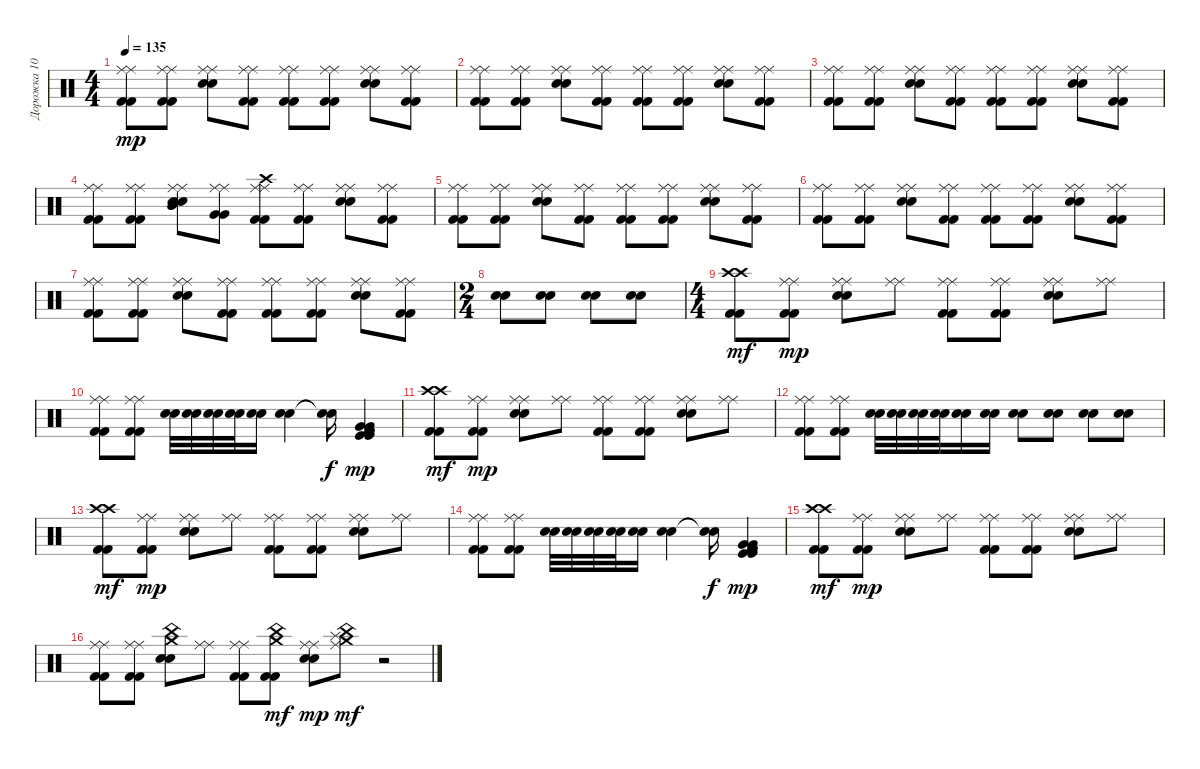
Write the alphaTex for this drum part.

\track ("Дорожка 10" "Дорожка 10") {instrument percussion}
\staff {score}
\articulation defaults
\ts (4 4)
\tempo 135
\clef neutral
\ks c
("Kick (hit) 2" "Ride (middle)" "Kick (hit) 2" "Ride (middle)").8{dy mp} ("Kick (hit) 2" "Ride (middle)" "Kick (hit) 2" "Ride (middle)").8 ("Snare (hit) 2" "Ride (middle)" "Snare (hit) 2" "Ride (middle)").8 ("Kick (hit) 2" "Ride (middle)" "Kick (hit) 2" "Ride (middle)").8 ("Kick (hit) 2" "Ride (middle)" "Kick (hit) 2" "Ride (middle)").8 ("Kick (hit) 2" "Ride (middle)" "Kick (hit) 2" "Ride (middle)").8 ("Snare (hit) 2" "Ride (middle)" "Snare (hit) 2" "Ride (middle)").8 ("Kick (hit) 2" "Ride (middle)" "Kick (hit) 2" "Ride (middle)").8 |
("Kick (hit) 2" "Ride (middle)" "Kick (hit) 2" "Ride (middle)").8 ("Kick (hit) 2" "Ride (middle)" "Kick (hit) 2" "Ride (middle)").8 ("Snare (hit) 2" "Ride (middle)" "Snare (hit) 2" "Ride (middle)").8 ("Kick (hit) 2" "Ride (middle)" "Kick (hit) 2" "Ride (middle)").8 ("Kick (hit) 2" "Ride (middle)" "Kick (hit) 2" "Ride (middle)").8 ("Kick (hit) 2" "Ride (middle)" "Kick (hit) 2" "Ride (middle)").8 ("Snare (hit) 2" "Ride (middle)" "Snare (hit) 2" "Ride (middle)").8 ("Kick (hit) 2" "Ride (middle)" "Kick (hit) 2" "Ride (middle)").8 |
("Kick (hit) 2" "Ride (middle)" "Kick (hit) 2" "Ride (middle)").8 ("Kick (hit) 2" "Ride (middle)" "Kick (hit) 2" "Ride (middle)").8 ("Snare (hit) 2" "Ride (middle)" "Snare (hit) 2" "Ride (middle)").8 ("Kick (hit) 2" "Ride (middle)" "Kick (hit) 2" "Ride (middle)").8 ("Kick (hit) 2" "Ride (middle)" "Kick (hit) 2" "Ride (middle)").8 ("Kick (hit) 2" "Ride (middle)" "Kick (hit) 2" "Ride (middle)").8 ("Snare (hit) 2" "Ride (middle)" "Snare (hit) 2" "Ride (middle)").8 ("Kick (hit) 2" "Ride (middle)" "Kick (hit) 2" "Ride (middle)").8 |
("Kick (hit) 2" "Ride (middle)" "Kick (hit) 2" "Ride (middle)").8 ("Kick (hit) 2" "Ride (middle)" "Kick (hit) 2" "Ride (middle)").8 ("Snare (hit) 2" "Mid Tom (hit)" "Ride (middle)" "Snare (hit) 2" "Mid Tom (hit)" "Ride (middle)").8 ("Very Low Tom (hit)" "Ride (middle)" "Very Low Tom (hit)" "Ride (middle)").8 ("Kick (hit) 2" "Ride (middle)" "Kick (hit) 2" "Ride (middle)" "Crash high (hit)").8 ("Kick (hit) 2" "Ride (middle)" "Kick (hit) 2" "Ride (middle)").8 ("Snare (hit) 2" "Ride (middle)" "Snare (hit) 2" "Ride (middle)").8 ("Kick (hit) 2" "Ride (middle)" "Kick (hit) 2" "Ride (middle)").8 |
("Kick (hit) 2" "Ride (middle)" "Kick (hit) 2" "Ride (middle)").8 ("Kick (hit) 2" "Ride (middle)" "Kick (hit) 2" "Ride (middle)").8 ("Snare (hit) 2" "Ride (middle)" "Snare (hit) 2" "Ride (middle)").8 ("Kick (hit) 2" "Ride (middle)" "Kick (hit) 2" "Ride (middle)").8 ("Kick (hit) 2" "Ride (middle)" "Kick (hit) 2" "Ride (middle)").8 ("Kick (hit) 2" "Ride (middle)" "Kick (hit) 2" "Ride (middle)").8 ("Snare (hit) 2" "Ride (middle)" "Snare (hit) 2" "Ride (middle)").8 ("Kick (hit) 2" "Ride (middle)" "Kick (hit) 2" "Ride (middle)").8 |
("Kick (hit) 2" "Ride (middle)" "Kick (hit) 2" "Ride (middle)").8 ("Kick (hit) 2" "Ride (middle)" "Kick (hit) 2" "Ride (middle)").8 ("Snare (hit) 2" "Ride (middle)" "Snare (hit) 2" "Ride (middle)").8 ("Kick (hit) 2" "Ride (middle)" "Kick (hit) 2" "Ride (middle)").8 ("Kick (hit) 2" "Ride (middle)" "Kick (hit) 2" "Ride (middle)").8 ("Kick (hit) 2" "Ride (middle)" "Kick (hit) 2" "Ride (middle)").8 ("Snare (hit) 2" "Ride (middle)" "Snare (hit) 2" "Ride (middle)").8 ("Kick (hit) 2" "Ride (middle)" "Kick (hit) 2" "Ride (middle)").8 |
("Kick (hit) 2" "Ride (middle)" "Kick (hit) 2" "Ride (middle)").8 ("Kick (hit) 2" "Ride (middle)" "Kick (hit) 2" "Ride (middle)").8 ("Snare (hit) 2" "Ride (middle)" "Snare (hit) 2" "Ride (middle)").8 ("Kick (hit) 2" "Ride (middle)" "Kick (hit) 2" "Ride (middle)").8 ("Kick (hit) 2" "Ride (middle)" "Kick (hit) 2" "Ride (middle)").8 ("Kick (hit) 2" "Ride (middle)" "Kick (hit) 2" "Ride (middle)").8 ("Snare (hit) 2" "Ride (middle)" "Snare (hit) 2" "Ride (middle)").8 ("Kick (hit) 2" "Ride (middle)" "Kick (hit) 2" "Ride (middle)").8 |
\ts (2 4)
("Snare (hit) 2" "Snare (hit) 2").8 ("Snare (hit) 2" "Snare (hit) 2").8 ("Snare (hit) 2" "Snare (hit) 2").8 ("Snare (hit) 2" "Snare (hit) 2").8 |
\ts (4 4)
("Kick (hit) 2" "Crash high (hit)" "Kick (hit) 2" "Crash high (hit)").8{dy mf} ("Kick (hit) 2" "Ride (middle)" "Kick (hit) 2" "Ride (middle)").8{dy mp} ("Snare (hit) 2" "Ride (middle)" "Snare (hit) 2" "Ride (middle)").8 ("Ride (middle)" "Ride (middle)").8 ("Kick (hit) 2" "Ride (middle)" "Kick (hit) 2" "Ride (middle)").8 ("Kick (hit) 2" "Ride (middle)" "Kick (hit) 2" "Ride (middle)").8 ("Snare (hit) 2" "Ride (middle)" "Snare (hit) 2" "Ride (middle)").8 ("Ride (middle)" "Ride (middle)").8 |
("Kick (hit) 2" "Ride (middle)" "Kick (hit) 2" "Ride (middle)").8 ("Kick (hit) 2" "Ride (middle)" "Kick (hit) 2" "Ride (middle)").8 ("Snare (hit) 2" "Snare (hit) 2").32 ("Snare (hit) 2" "Snare (hit) 2").32 ("Snare (hit) 2" "Snare (hit) 2").32 ("Snare (hit) 2" "Snare (hit) 2").32 ("Snare (hit) 2" "Snare (hit) 2").16 ("Snare (hit) 2" "Snare (hit) 2").4 ("Snare (hit)"{t} "Snare (hit)"{t}).16{dy f} ("Kick (hit)" "Kick (hit) 2" "Very Low Tom (hit)" "Kick (hit)" "Kick (hit) 2" "Very Low Tom (hit)").4{dy mp} |
("Kick (hit) 2" "Crash high (hit)" "Kick (hit) 2" "Crash high (hit)").8{dy mf} ("Kick (hit) 2" "Ride (middle)" "Kick (hit) 2" "Ride (middle)").8{dy mp} ("Snare (hit) 2" "Ride (middle)" "Snare (hit) 2" "Ride (middle)").8 ("Ride (middle)" "Ride (middle)").8 ("Kick (hit) 2" "Ride (middle)" "Kick (hit) 2" "Ride (middle)").8 ("Kick (hit) 2" "Ride (middle)" "Kick (hit) 2" "Ride (middle)").8 ("Snare (hit) 2" "Ride (middle)" "Snare (hit) 2" "Ride (middle)").8 ("Ride (middle)" "Ride (middle)").8 |
("Kick (hit) 2" "Ride (middle)" "Kick (hit) 2" "Ride (middle)").8 ("Kick (hit) 2" "Ride (middle)" "Kick (hit) 2" "Ride (middle)").8 ("Snare (hit) 2" "Snare (hit) 2").32 ("Snare (hit) 2" "Snare (hit) 2").32 ("Snare (hit) 2" "Snare (hit) 2").32 ("Snare (hit) 2" "Snare (hit) 2").32 ("Snare (hit) 2" "Snare (hit) 2").16 ("Snare (hit) 2" "Snare (hit) 2").16 ("Snare (hit) 2" "Snare (hit) 2").8 ("Snare (hit) 2" "Snare (hit) 2").8 ("Snare (hit) 2" "Snare (hit) 2").8 ("Snare (hit) 2" "Snare (hit) 2").8 |
("Kick (hit) 2" "Crash high (hit)" "Kick (hit) 2" "Crash high (hit)").8{dy mf} ("Kick (hit) 2" "Ride (middle)" "Kick (hit) 2" "Ride (middle)").8{dy mp} ("Snare (hit) 2" "Ride (middle)" "Snare (hit) 2" "Ride (middle)").8 ("Ride (middle)" "Ride (middle)").8 ("Kick (hit) 2" "Ride (middle)" "Kick (hit) 2" "Ride (middle)").8 ("Kick (hit) 2" "Ride (middle)" "Kick (hit) 2" "Ride (middle)").8 ("Snare (hit) 2" "Ride (middle)" "Snare (hit) 2" "Ride (middle)").8 ("Ride (middle)" "Ride (middle)").8 |
("Kick (hit) 2" "Ride (middle)" "Kick (hit) 2" "Ride (middle)").8 ("Kick (hit) 2" "Ride (middle)" "Kick (hit) 2" "Ride (middle)").8 ("Snare (hit) 2" "Snare (hit) 2").32 ("Snare (hit) 2" "Snare (hit) 2").32 ("Snare (hit) 2" "Snare (hit) 2").32 ("Snare (hit) 2" "Snare (hit) 2").32 ("Snare (hit) 2" "Snare (hit) 2").16 ("Snare (hit) 2" "Snare (hit) 2").4 ("Snare (hit)"{t} "Snare (hit)"{t}).16{dy f} ("Kick (hit)" "Kick (hit) 2" "Very Low Tom (hit)" "Kick (hit)" "Kick (hit) 2" "Very Low Tom (hit)").4{dy mp} |
("Kick (hit) 2" "Crash high (hit)" "Kick (hit) 2" "Crash high (hit)").8{dy mf} ("Kick (hit) 2" "Ride (middle)" "Kick (hit) 2" "Ride (middle)").8{dy mp} ("Snare (hit) 2" "Ride (middle)" "Snare (hit) 2" "Ride (middle)").8 ("Ride (middle)" "Ride (middle)").8 ("Kick (hit) 2" "Ride (middle)" "Kick (hit) 2" "Ride (middle)").8 ("Kick (hit) 2" "Ride (middle)" "Kick (hit) 2" "Ride (middle)").8 ("Snare (hit) 2" "Ride (middle)" "Snare (hit) 2" "Ride (middle)").8 ("Ride (middle)" "Ride (middle)").8 |
("Kick (hit) 2" "Ride (middle)" "Kick (hit) 2" "Ride (middle)").8 ("Kick (hit) 2" "Ride (middle)" "Kick (hit) 2" "Ride (middle)").8 ("Snare (hit) 2" "Crash medium (hit)" "Snare (hit) 2" "China (hit)").8 ("Ride (middle)" "Ride (middle)").8 ("Kick (hit) 2" "Ride (middle)" "Kick (hit) 2" "Ride (middle)").8 ("Kick (hit) 2" "China (hit)" "Kick (hit) 2" "Crash medium (hit)").8{dy mf} ("Snare (hit) 2" "Ride (middle)" "Snare (hit) 2" "Ride (middle)").8{dy mp} ("Ride (middle)" "Splash (hit)" "China (hit)" "Crash medium (hit)").8{dy mf} r.2
